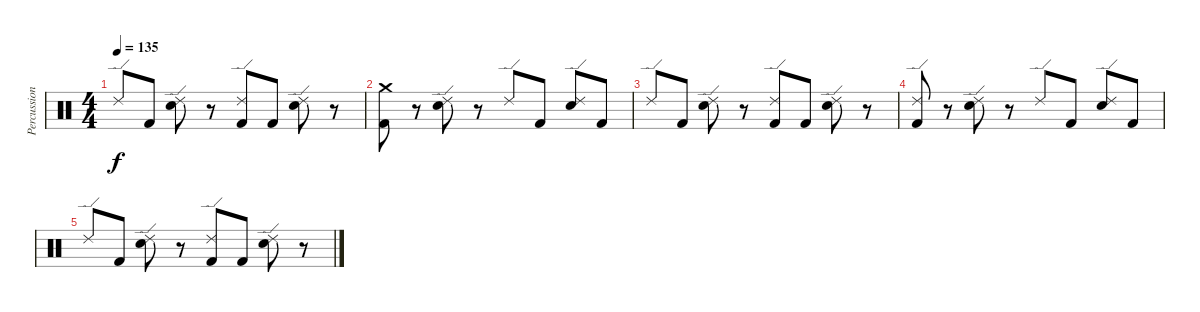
\track ("Percussion" "Percussion") {instrument percussion}
\staff {score}
\articulation defaults
\ts (4 4)
\tempo 135
\clef neutral
\ks c "Ride (edge) 2".8{dy f} "Kick (hit) 2".8
("Ride (edge) 2" "Electric Snare (hit)").8 r.8 ("Ride (edge) 2" "Kick (hit) 2").8 "Kick (hit) 2".8 ("Ride (edge) 2" "Electric Snare (hit)").8 r.8 |
("Crash medium (hit)" "Kick (hit) 2").8 r.8 ("Ride (edge) 2" "Electric Snare (hit)").8 r.8 "Ride (edge) 2".8 "Kick (hit) 2".8 ("Ride (edge) 2" "Electric Snare (hit)").8 "Kick (hit) 2".8 |
"Ride (edge) 2".8 "Kick (hit) 2".8 ("Ride (edge) 2" "Electric Snare (hit)").8 r.8 ("Ride (edge) 2" "Kick (hit) 2").8 "Kick (hit) 2".8 ("Ride (edge) 2" "Electric Snare (hit)").8 r.8 |
("Ride (edge) 2" "Kick (hit) 2").8 r.8 ("Ride (edge) 2" "Electric Snare (hit)").8 r.8 "Ride (edge) 2".8 "Kick (hit) 2".8 ("Ride (edge) 2" "Electric Snare (hit)").8 "Kick (hit) 2".8 |
"Ride (edge) 2".8 "Kick (hit) 2".8 ("Ride (edge) 2" "Electric Snare (hit)").8 r.8 ("Ride (edge) 2" "Kick (hit) 2").8 "Kick (hit) 2".8 ("Ride (edge) 2" "Electric Snare (hit)").8 r.8
